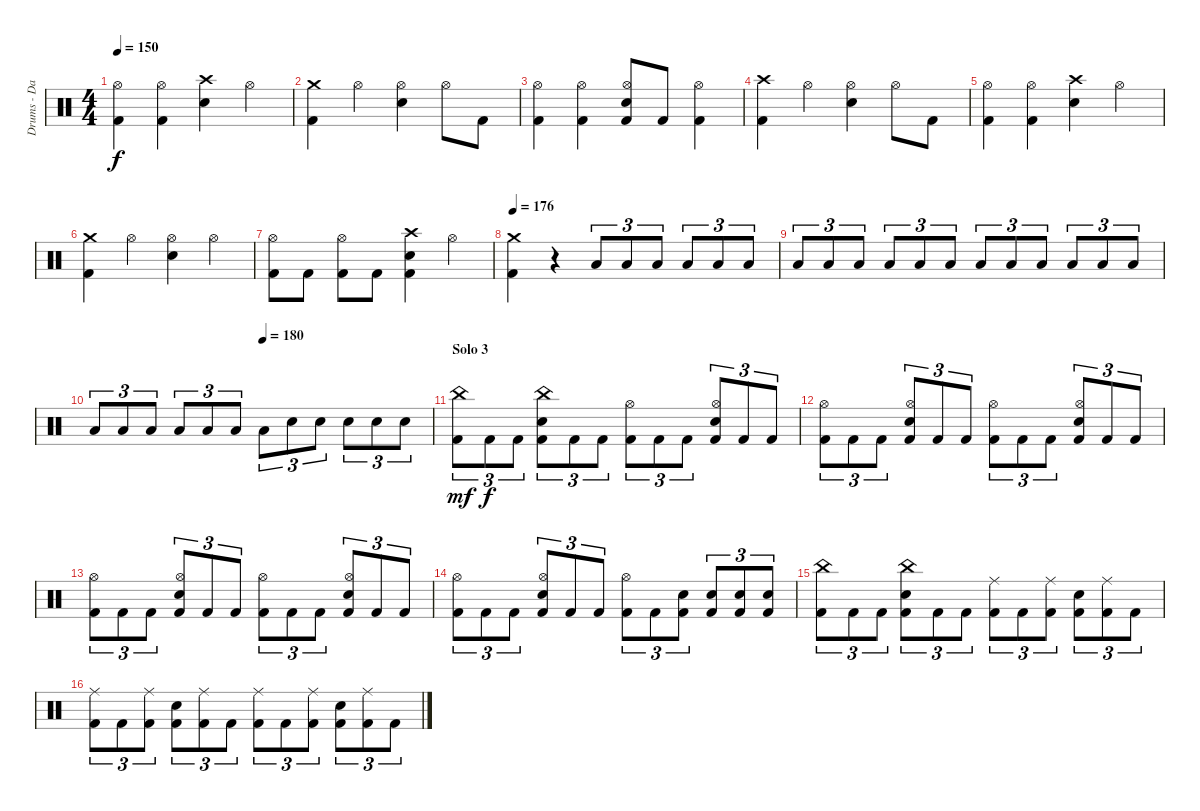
\track ("Drums - Dan Zimmermann" "Drums - Da") {instrument percussion}
\staff {score}
\articulation defaults
\ts (4 4)
\tempo 150
\clef neutral
\ks c
("Kick (hit) 2" "Hi-Hat (open)").4{dy f} ("Kick (hit) 2" "Hi-Hat (open)").4 ("Electric Snare (hit)" "Crash high (hit)").4 "Hi-Hat (open)".4 |
("Kick (hit) 2" "Crash medium (hit)").4 "Hi-Hat (open)".4 ("Electric Snare (hit)" "Hi-Hat (open)").4 "Hi-Hat (open)".8 "Kick (hit) 2".8 |
("Kick (hit) 2" "Hi-Hat (open)").4 ("Kick (hit) 2" "Hi-Hat (open)").4 ("Kick (hit) 2" "Electric Snare (hit)" "Hi-Hat (open)").8 "Kick (hit) 2".8 ("Kick (hit) 2" "Hi-Hat (open)").4 |
("Kick (hit) 2" "Crash high (hit)").4 "Hi-Hat (open)".4 ("Electric Snare (hit)" "Hi-Hat (open)").4 "Hi-Hat (open)".8 "Kick (hit) 2".8 |
("Kick (hit) 2" "Hi-Hat (open)").4 ("Kick (hit) 2" "Hi-Hat (open)").4 ("Electric Snare (hit)" "Crash high (hit)").4 "Hi-Hat (open)".4 |
("Kick (hit) 2" "Crash medium (hit)").4 "Hi-Hat (open)".4 ("Electric Snare (hit)" "Hi-Hat (open)").4 "Hi-Hat (open)".4 |
("Kick (hit) 2" "Hi-Hat (open)").8 "Kick (hit) 2".8 ("Kick (hit) 2" "Hi-Hat (open)").8 "Kick (hit) 2".8 ("Kick (hit) 2" "Electric Snare (hit)" "Crash high (hit)").4 "Hi-Hat (open)".4 |
\tempo 176
("Kick (hit) 2" "Crash medium (hit)").4 r.4 "Low Floor Tom (hit)".8{tu (3 2)} "Low Floor Tom (hit)".8{tu (3 2)} "Low Floor Tom (hit)".8{tu (3 2)} "Low Floor Tom (hit)".8{tu (3 2)} "Low Floor Tom (hit)".8{tu (3 2)} "Low Floor Tom (hit)".8{tu (3 2)} |
"Low Floor Tom (hit)".8{tu (3 2)} "Low Floor Tom (hit)".8{tu (3 2)} "Low Floor Tom (hit)".8{tu (3 2)} "Low Floor Tom (hit)".8{tu (3 2)} "Low Floor Tom (hit)".8{tu (3 2)} "Low Floor Tom (hit)".8{tu (3 2)} "Low Floor Tom (hit)".8{tu (3 2)} "Low Floor Tom (hit)".8{tu (3 2)} "Low Floor Tom (hit)".8{tu (3 2)} "Low Floor Tom (hit)".8{tu (3 2)} "Low Floor Tom (hit)".8{tu (3 2)} "Low Floor Tom (hit)".8{tu (3 2)} |
\tempo (180 0.5)
"Low Floor Tom (hit)".8{tu (3 2)} "Low Floor Tom (hit)".8{tu (3 2)} "Low Floor Tom (hit)".8{tu (3 2)} "Low Floor Tom (hit)".8{tu (3 2)} "Low Floor Tom (hit)".8{tu (3 2)} "Low Floor Tom (hit)".8{tu (3 2)} "Low Floor Tom (hit)".8{tu (3 2)} "Electric Snare (hit)".8{tu (3 2)} "Electric Snare (hit)".8{tu (3 2)} "Electric Snare (hit)".8{tu (3 2)} "Electric Snare (hit)".8{tu (3 2)} "Electric Snare (hit)".8{tu (3 2)} |
\section ("" "Solo 3")
("Kick (hit) 2" "China (hit)").8{tu (3 2) dy mf} "Kick (hit) 2".8{tu (3 2) dy f} "Kick (hit) 2".8{tu (3 2)} ("Kick (hit) 2" "Electric Snare (hit)" "China (hit)").8{tu (3 2)} "Kick (hit) 2".8{tu (3 2)} "Kick (hit) 2".8{tu (3 2)} ("Kick (hit) 2" "Hi-Hat (open)").8{tu (3 2)} "Kick (hit) 2".8{tu (3 2)} "Kick (hit) 2".8{tu (3 2)} ("Kick (hit) 2" "Electric Snare (hit)" "Hi-Hat (open)").8{tu (3 2)} "Kick (hit) 2".8{tu (3 2)} "Kick (hit) 2".8{tu (3 2)} |
("Kick (hit) 2" "Hi-Hat (open)").8{tu (3 2)} "Kick (hit) 2".8{tu (3 2)} "Kick (hit) 2".8{tu (3 2)} ("Kick (hit) 2" "Electric Snare (hit)" "Hi-Hat (open)").8{tu (3 2)} "Kick (hit) 2".8{tu (3 2)} "Kick (hit) 2".8{tu (3 2)} ("Kick (hit) 2" "Hi-Hat (open)").8{tu (3 2)} "Kick (hit) 2".8{tu (3 2)} "Kick (hit) 2".8{tu (3 2)} ("Kick (hit) 2" "Electric Snare (hit)" "Hi-Hat (open)").8{tu (3 2)} "Kick (hit) 2".8{tu (3 2)} "Kick (hit) 2".8{tu (3 2)} |
("Kick (hit) 2" "Hi-Hat (open)").8{tu (3 2)} "Kick (hit) 2".8{tu (3 2)} "Kick (hit) 2".8{tu (3 2)} ("Kick (hit) 2" "Electric Snare (hit)" "Hi-Hat (open)").8{tu (3 2)} "Kick (hit) 2".8{tu (3 2)} "Kick (hit) 2".8{tu (3 2)} ("Kick (hit) 2" "Hi-Hat (open)").8{tu (3 2)} "Kick (hit) 2".8{tu (3 2)} "Kick (hit) 2".8{tu (3 2)} ("Kick (hit) 2" "Electric Snare (hit)" "Hi-Hat (open)").8{tu (3 2)} "Kick (hit) 2".8{tu (3 2)} "Kick (hit) 2".8{tu (3 2)} |
("Kick (hit) 2" "Hi-Hat (open)").8{tu (3 2)} "Kick (hit) 2".8{tu (3 2)} "Kick (hit) 2".8{tu (3 2)} ("Kick (hit) 2" "Electric Snare (hit)" "Hi-Hat (open)").8{tu (3 2)} "Kick (hit) 2".8{tu (3 2)} "Kick (hit) 2".8{tu (3 2)} ("Kick (hit) 2" "Hi-Hat (open)").8{tu (3 2)} "Kick (hit) 2".8{tu (3 2)} ("Kick (hit) 2" "Electric Snare (hit)").8{tu (3 2)} ("Kick (hit) 2" "Electric Snare (hit)").8{tu (3 2)} ("Kick (hit) 2" "Electric Snare (hit)").8{tu (3 2)} ("Kick (hit) 2" "Electric Snare (hit)").8{tu (3 2)} |
("Kick (hit) 2" "China (hit)").8{tu (3 2)} "Kick (hit) 2".8{tu (3 2)} "Kick (hit) 2".8{tu (3 2)} ("Kick (hit) 2" "Electric Snare (hit)" "China (hit)").8{tu (3 2)} "Kick (hit) 2".8{tu (3 2)} "Kick (hit) 2".8{tu (3 2)} ("Kick (hit) 2" "Ride (middle)").8{tu (3 2)} "Kick (hit) 2".8{tu (3 2)} ("Kick (hit) 2" "Ride (middle)").8{tu (3 2)} ("Kick (hit) 2" "Electric Snare (hit)").8{tu (3 2)} ("Kick (hit) 2" "Ride (middle)").8{tu (3 2)} "Kick (hit) 2".8{tu (3 2)} |
("Kick (hit) 2" "Ride (middle)").8{tu (3 2)} "Kick (hit) 2".8{tu (3 2)} ("Kick (hit) 2" "Ride (middle)").8{tu (3 2)} ("Kick (hit) 2" "Electric Snare (hit)").8{tu (3 2)} ("Kick (hit) 2" "Ride (middle)").8{tu (3 2)} "Kick (hit) 2".8{tu (3 2)} ("Kick (hit) 2" "Ride (middle)").8{tu (3 2)} "Kick (hit) 2".8{tu (3 2)} ("Kick (hit) 2" "Ride (middle)").8{tu (3 2)} ("Kick (hit) 2" "Electric Snare (hit)").8{tu (3 2)} ("Kick (hit) 2" "Ride (middle)").8{tu (3 2)} "Kick (hit) 2".8{tu (3 2)}
